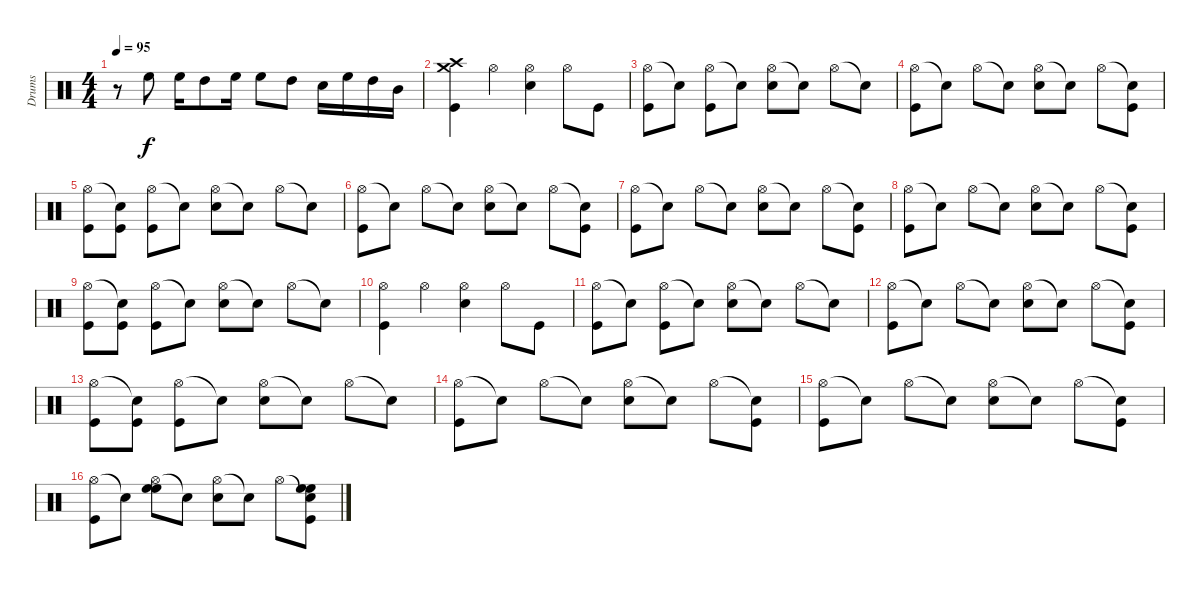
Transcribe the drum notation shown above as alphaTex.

\track ("Drums" "Drums") {instrument percussion}
\staff {score}
\articulation defaults
\ts (4 4)
\tempo 95
\clef neutral
\ks c
r.8{dy f} "High Floor Tom (hit)".8 "High Floor Tom (hit)".16 "High Tom (hit)".8 "High Floor Tom (hit)".16 "High Floor Tom (hit)".8 "High Tom (hit)".8 "Snare (hit) 2".16 "High Floor Tom (hit)".16 "High Tom (hit)".16 "Mid Tom (hit)".16 |
("Crash medium (hit)" "Crash high (hit)" "Kick (hit)").4 "Hi-Hat (open)".4 ("Hi-Hat (open)" "Snare (hit) 2").4 "Hi-Hat (open)".8 "Kick (hit)".8 |
("Hi-Hat (open)" "Kick (hit)").8 "Snare (hit)"{t}.8 ("Hi-Hat (open)" "Kick (hit)").8 "Snare (hit)"{t}.8 ("Hi-Hat (open)" "Snare (hit) 2").8 "Snare (hit)"{t}.8 "Hi-Hat (open)".8 "Snare (hit)"{t}.8 |
("Hi-Hat (open)" "Kick (hit)").8 "Snare (hit)"{t}.8 "Hi-Hat (open)".8 "Snare (hit)"{t}.8 ("Hi-Hat (open)" "Snare (hit) 2").8 "Snare (hit)"{t}.8 "Hi-Hat (open)".8 ("Snare (hit)"{t} "Kick (hit)").8 |
("Hi-Hat (open)" "Kick (hit)").8 ("Snare (hit)"{t} "Kick (hit)").8 ("Hi-Hat (open)" "Kick (hit)").8 "Snare (hit)"{t}.8 ("Hi-Hat (open)" "Snare (hit) 2").8 "Snare (hit)"{t}.8 "Hi-Hat (open)".8 "Snare (hit)"{t}.8 |
("Hi-Hat (open)" "Kick (hit)").8 "Snare (hit)"{t}.8 "Hi-Hat (open)".8 "Snare (hit)"{t}.8 ("Hi-Hat (open)" "Snare (hit) 2").8 "Snare (hit)"{t}.8 "Hi-Hat (open)".8 ("Snare (hit)"{t} "Kick (hit)").8 |
("Hi-Hat (open)" "Kick (hit)").8 "Snare (hit)"{t}.8 "Hi-Hat (open)".8 "Snare (hit)"{t}.8 ("Hi-Hat (open)" "Snare (hit) 2").8 "Snare (hit)"{t}.8 "Hi-Hat (open)".8 ("Snare (hit)"{t} "Kick (hit)").8 |
("Hi-Hat (open)" "Kick (hit)").8 "Snare (hit)"{t}.8 "Hi-Hat (open)".8 "Snare (hit)"{t}.8 ("Hi-Hat (open)" "Snare (hit) 2").8 "Snare (hit)"{t}.8 "Hi-Hat (open)".8 ("Snare (hit)"{t} "Kick (hit)").8 |
("Hi-Hat (open)" "Kick (hit)").8 ("Snare (hit)"{t} "Kick (hit)").8 ("Hi-Hat (open)" "Kick (hit)").8 "Snare (hit)"{t}.8 ("Hi-Hat (open)" "Snare (hit) 2").8 "Snare (hit)"{t}.8 "Hi-Hat (open)".8 "Snare (hit)"{t}.8 |
("Hi-Hat (open)" "Kick (hit)").4 "Hi-Hat (open)".4 ("Hi-Hat (open)" "Snare (hit) 2").4 "Hi-Hat (open)".8 "Kick (hit)".8 |
("Hi-Hat (open)" "Kick (hit)").8 "Snare (hit)"{t}.8 ("Hi-Hat (open)" "Kick (hit)").8 "Snare (hit)"{t}.8 ("Hi-Hat (open)" "Snare (hit) 2").8 "Snare (hit)"{t}.8 "Hi-Hat (open)".8 "Snare (hit)"{t}.8 |
("Hi-Hat (open)" "Kick (hit)").8 "Snare (hit)"{t}.8 "Hi-Hat (open)".8 "Snare (hit)"{t}.8 ("Hi-Hat (open)" "Snare (hit) 2").8 "Snare (hit)"{t}.8 "Hi-Hat (open)".8 ("Snare (hit)"{t} "Kick (hit)").8 |
("Hi-Hat (open)" "Kick (hit)").8 ("Snare (hit)"{t} "Kick (hit)").8 ("Hi-Hat (open)" "Kick (hit)").8 "Snare (hit)"{t}.8 ("Hi-Hat (open)" "Snare (hit) 2").8 "Snare (hit)"{t}.8 "Hi-Hat (open)".8 "Snare (hit)"{t}.8 |
("Hi-Hat (open)" "Kick (hit)").8 "Snare (hit)"{t}.8 "Hi-Hat (open)".8 "Snare (hit)"{t}.8 ("Hi-Hat (open)" "Snare (hit) 2").8 "Snare (hit)"{t}.8 "Hi-Hat (open)".8 ("Snare (hit)"{t} "Kick (hit)").8 |
("Hi-Hat (open)" "Kick (hit)").8 "Snare (hit)"{t}.8 "Hi-Hat (open)".8 "Snare (hit)"{t}.8 ("Hi-Hat (open)" "Snare (hit) 2").8 "Snare (hit)"{t}.8 "Hi-Hat (open)".8 ("Snare (hit)"{t} "Kick (hit)").8 |
("Hi-Hat (open)" "Kick (hit)").8 "Snare (hit)"{t}.8 ("Hi-Hat (open)" "High Floor Tom (hit)" "High Floor Tom (hit)").8 "Snare (hit)"{t}.8 ("Hi-Hat (open)" "Snare (hit) 2").8 "Snare (hit)"{t}.8 "Hi-Hat (open)".8 ("Snare (hit)"{t} "High Floor Tom (hit)" "Kick (hit)" "High Floor Tom (hit)").8
